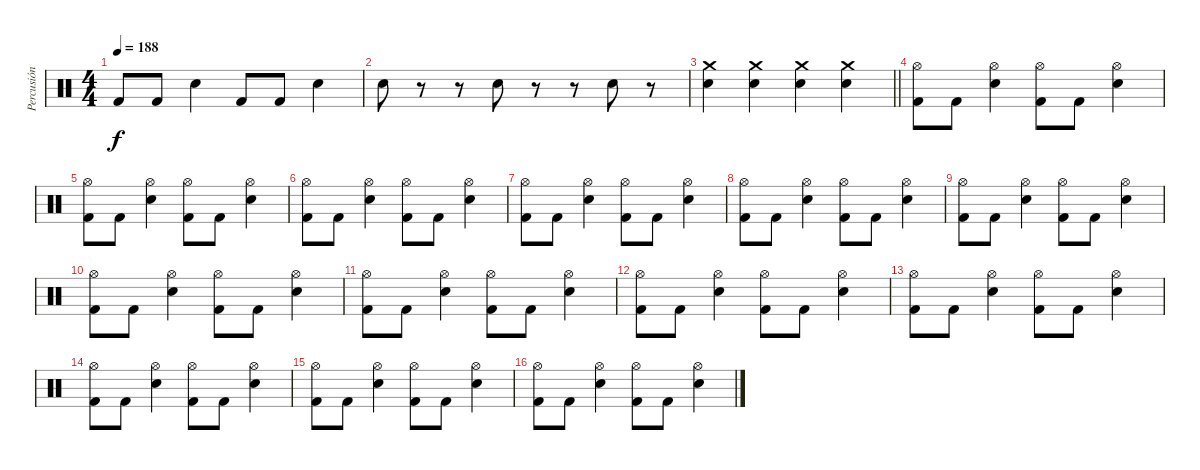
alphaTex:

\track ("Percusión" "Percusión") {instrument percussion}
\staff {score}
\articulation defaults
\ts (4 4)
\tempo 188
\clef neutral
\ks c "Kick (hit) 2".8{dy f} "Kick (hit) 2".8 "Electric Snare (hit)".4 "Kick (hit) 2".8 "Kick (hit) 2".8 "Electric Snare (hit)".4
|
"Electric Snare (hit)".8 r.8 r.8 "Electric Snare (hit)".8 r.8 r.8 "Electric Snare (hit)".8 r.8 |
\barLineRight lightlight
("Electric Snare (hit)" "Crash medium (hit)").4 ("Electric Snare (hit)" "Crash medium (hit)").4 ("Electric Snare (hit)" "Crash medium (hit)").4 ("Electric Snare (hit)" "Crash medium (hit)").4 |
("Kick (hit) 2" "Hi-Hat (open)").8 "Kick (hit) 2".8 ("Electric Snare (hit)" "Hi-Hat (open)").4 ("Kick (hit) 2" "Hi-Hat (open)").8 "Kick (hit) 2".8 ("Electric Snare (hit)" "Hi-Hat (open)").4 |
("Kick (hit) 2" "Hi-Hat (open)").8 "Kick (hit) 2".8 ("Electric Snare (hit)" "Hi-Hat (open)").4 ("Kick (hit) 2" "Hi-Hat (open)").8 "Kick (hit) 2".8 ("Electric Snare (hit)" "Hi-Hat (open)").4 |
("Kick (hit) 2" "Hi-Hat (open)").8 "Kick (hit) 2".8 ("Electric Snare (hit)" "Hi-Hat (open)").4 ("Kick (hit) 2" "Hi-Hat (open)").8 "Kick (hit) 2".8 ("Electric Snare (hit)" "Hi-Hat (open)").4 |
("Kick (hit) 2" "Hi-Hat (open)").8 "Kick (hit) 2".8 ("Electric Snare (hit)" "Hi-Hat (open)").4 ("Kick (hit) 2" "Hi-Hat (open)").8 "Kick (hit) 2".8 ("Electric Snare (hit)" "Hi-Hat (open)").4 |
("Kick (hit) 2" "Hi-Hat (open)").8 "Kick (hit) 2".8 ("Electric Snare (hit)" "Hi-Hat (open)").4 ("Kick (hit) 2" "Hi-Hat (open)").8 "Kick (hit) 2".8 ("Electric Snare (hit)" "Hi-Hat (open)").4 |
("Kick (hit) 2" "Hi-Hat (open)").8 "Kick (hit) 2".8 ("Electric Snare (hit)" "Hi-Hat (open)").4 ("Kick (hit) 2" "Hi-Hat (open)").8 "Kick (hit) 2".8 ("Electric Snare (hit)" "Hi-Hat (open)").4 |
("Kick (hit) 2" "Hi-Hat (open)").8 "Kick (hit) 2".8 ("Electric Snare (hit)" "Hi-Hat (open)").4 ("Kick (hit) 2" "Hi-Hat (open)").8 "Kick (hit) 2".8 ("Electric Snare (hit)" "Hi-Hat (open)").4 |
("Kick (hit) 2" "Hi-Hat (open)").8 "Kick (hit) 2".8 ("Electric Snare (hit)" "Hi-Hat (open)").4 ("Kick (hit) 2" "Hi-Hat (open)").8 "Kick (hit) 2".8 ("Electric Snare (hit)" "Hi-Hat (open)").4 |
("Kick (hit) 2" "Hi-Hat (open)").8 "Kick (hit) 2".8 ("Electric Snare (hit)" "Hi-Hat (open)").4 ("Kick (hit) 2" "Hi-Hat (open)").8 "Kick (hit) 2".8 ("Electric Snare (hit)" "Hi-Hat (open)").4 |
("Kick (hit) 2" "Hi-Hat (open)").8 "Kick (hit) 2".8 ("Electric Snare (hit)" "Hi-Hat (open)").4 ("Kick (hit) 2" "Hi-Hat (open)").8 "Kick (hit) 2".8 ("Electric Snare (hit)" "Hi-Hat (open)").4 |
("Kick (hit) 2" "Hi-Hat (open)").8 "Kick (hit) 2".8 ("Electric Snare (hit)" "Hi-Hat (open)").4 ("Kick (hit) 2" "Hi-Hat (open)").8 "Kick (hit) 2".8 ("Electric Snare (hit)" "Hi-Hat (open)").4 |
("Kick (hit) 2" "Hi-Hat (open)").8 "Kick (hit) 2".8 ("Electric Snare (hit)" "Hi-Hat (open)").4 ("Kick (hit) 2" "Hi-Hat (open)").8 "Kick (hit) 2".8 ("Electric Snare (hit)" "Hi-Hat (open)").4 |
("Kick (hit) 2" "Hi-Hat (open)").8 "Kick (hit) 2".8 ("Electric Snare (hit)" "Hi-Hat (open)").4 ("Kick (hit) 2" "Hi-Hat (open)").8 "Kick (hit) 2".8 ("Electric Snare (hit)" "Hi-Hat (open)").4
